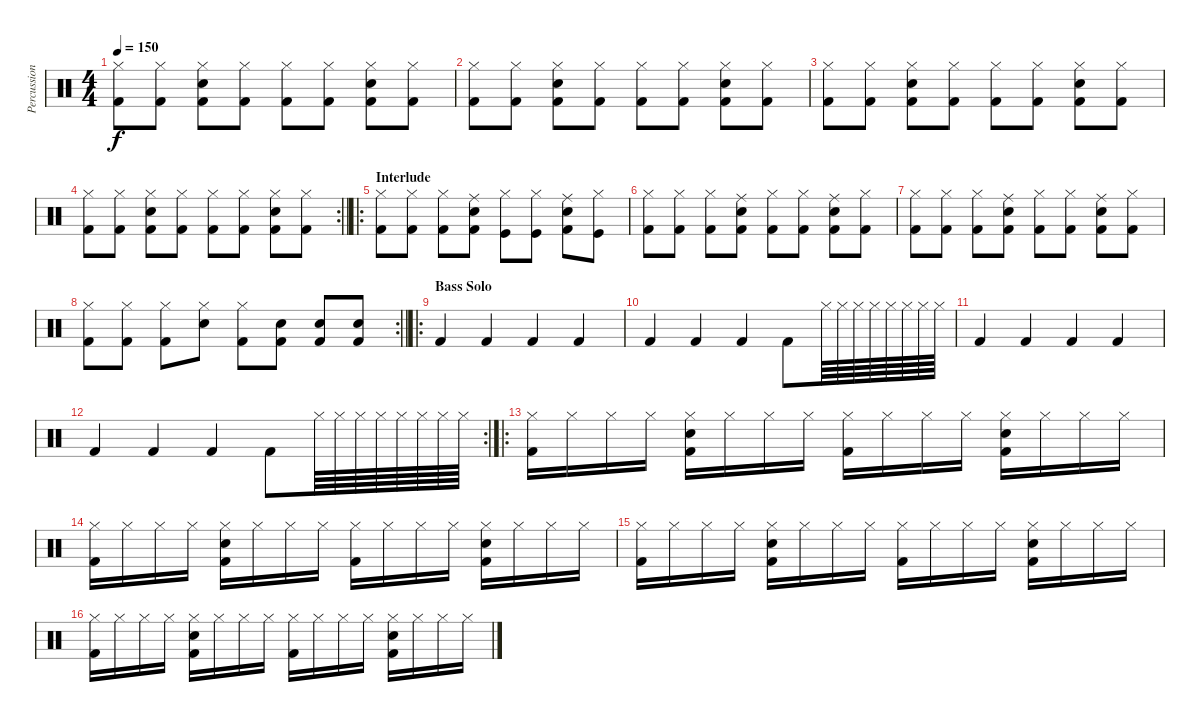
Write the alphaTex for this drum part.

\track ("Percussion" "Percussion") {instrument percussion}
\staff {score}
\articulation defaults
\ts (4 4)
\tempo 150
\clef neutral
\ks c
("Kick (hit) 2" "Hi-Hat (closed)").8{dy f} ("Kick (hit) 2" "Hi-Hat (closed)").8 ("Kick (hit) 2" "Hi-Hat (closed)" "Snare (hit) 2").8 ("Kick (hit) 2" "Hi-Hat (closed)").8 ("Kick (hit) 2" "Hi-Hat (closed)").8 ("Kick (hit) 2" "Hi-Hat (closed)").8 ("Kick (hit) 2" "Hi-Hat (closed)" "Snare (hit) 2").8 ("Kick (hit) 2" "Hi-Hat (closed)").8 |
("Kick (hit) 2" "Hi-Hat (closed)").8 ("Kick (hit) 2" "Hi-Hat (closed)").8 ("Kick (hit) 2" "Hi-Hat (closed)" "Snare (hit) 2").8 ("Kick (hit) 2" "Hi-Hat (closed)").8 ("Kick (hit) 2" "Hi-Hat (closed)").8 ("Kick (hit) 2" "Hi-Hat (closed)").8 ("Kick (hit) 2" "Hi-Hat (closed)" "Snare (hit) 2").8 ("Kick (hit) 2" "Hi-Hat (closed)").8 |
("Kick (hit) 2" "Hi-Hat (closed)").8 ("Kick (hit) 2" "Hi-Hat (closed)").8 ("Kick (hit) 2" "Hi-Hat (closed)" "Snare (hit) 2").8 ("Kick (hit) 2" "Hi-Hat (closed)").8 ("Kick (hit) 2" "Hi-Hat (closed)").8 ("Kick (hit) 2" "Hi-Hat (closed)").8 ("Kick (hit) 2" "Hi-Hat (closed)" "Snare (hit) 2").8 ("Kick (hit) 2" "Hi-Hat (closed)").8 |
\rc 2
\barLineRight lightlight
("Kick (hit) 2" "Hi-Hat (closed)").8 ("Kick (hit) 2" "Hi-Hat (closed)").8 ("Kick (hit) 2" "Hi-Hat (closed)" "Snare (hit) 2").8 ("Kick (hit) 2" "Hi-Hat (closed)").8 ("Kick (hit) 2" "Hi-Hat (closed)").8 ("Kick (hit) 2" "Hi-Hat (closed)").8 ("Kick (hit) 2" "Hi-Hat (closed)" "Snare (hit) 2").8 ("Kick (hit) 2" "Hi-Hat (closed)").8 |
\ro
\section ("" "Interlude")
("Kick (hit) 2" "Hi-Hat (closed)").8 ("Kick (hit) 2" "Hi-Hat (closed)").8 ("Kick (hit) 2" "Hi-Hat (closed)").8 ("Kick (hit) 2" "Ride (middle)" "Snare (hit) 2").8 ("Hi-Hat (closed)" "Kick (hit)").8 ("Hi-Hat (closed)" "Kick (hit)").8 ("Kick (hit) 2" "Ride (middle)" "Snare (hit) 2").8 ("Hi-Hat (closed)" "Kick (hit)").8 |
("Kick (hit) 2" "Hi-Hat (closed)").8 ("Kick (hit) 2" "Hi-Hat (closed)").8 ("Kick (hit) 2" "Hi-Hat (closed)").8 ("Kick (hit) 2" "Snare (hit) 2" "Ride (middle)").8 ("Kick (hit) 2" "Hi-Hat (closed)").8 ("Kick (hit) 2" "Hi-Hat (closed)").8 ("Kick (hit) 2" "Snare (hit) 2" "Ride (middle)").8 ("Kick (hit) 2" "Hi-Hat (closed)").8 |
("Kick (hit) 2" "Hi-Hat (closed)").8 ("Kick (hit) 2" "Hi-Hat (closed)").8 ("Kick (hit) 2" "Hi-Hat (closed)").8 ("Kick (hit) 2" "Snare (hit) 2" "Ride (middle)").8 ("Kick (hit) 2" "Hi-Hat (closed)").8 ("Kick (hit) 2" "Hi-Hat (closed)").8 ("Kick (hit) 2" "Snare (hit) 2" "Ride (middle)").8 ("Kick (hit) 2" "Hi-Hat (closed)").8 |
\rc 2
\barLineRight lightlight
("Kick (hit) 2" "Hi-Hat (closed)").8 ("Kick (hit) 2" "Hi-Hat (closed)").8 ("Kick (hit) 2" "Hi-Hat (closed)").8 ("Hi-Hat (closed)" "Snare (hit) 2").8 ("Kick (hit) 2" "Hi-Hat (closed)").8 ("Kick (hit) 2" "Snare (hit) 2").8 ("Kick (hit) 2" "Snare (hit) 2").8 ("Kick (hit) 2" "Snare (hit) 2").8 |
\ro
\section ("" "Bass Solo")
"Kick (hit) 2".4 "Kick (hit) 2".4 "Kick (hit) 2".4 "Kick (hit) 2".4 |
"Kick (hit) 2".4 "Kick (hit) 2".4 "Kick (hit) 2".4 "Kick (hit) 2".8 "Hi-Hat (closed)".64 "Hi-Hat (closed)".64 "Hi-Hat (closed)".64 "Hi-Hat (closed)".64 "Hi-Hat (closed)".64 "Hi-Hat (closed)".64 "Hi-Hat (closed)".64 "Hi-Hat (closed)".64 |
"Kick (hit) 2".4 "Kick (hit) 2".4 "Kick (hit) 2".4 "Kick (hit) 2".4 |
\rc 2 "Kick (hit) 2".4 "Kick (hit) 2".4 "Kick (hit) 2".4 "Kick (hit) 2".8 "Hi-Hat (closed)".64 "Hi-Hat (closed)".64 "Hi-Hat (closed)".64 "Hi-Hat (closed)".64 "Hi-Hat (closed)".64 "Hi-Hat (closed)".64 "Hi-Hat (closed)".64 "Hi-Hat (closed)".64
|
\ro
("Kick (hit) 2" "Hi-Hat (closed)").16 "Hi-Hat (closed)".16 "Hi-Hat (closed)".16 "Hi-Hat (closed)".16 ("Hi-Hat (closed)" "Kick (hit) 2" "Snare (hit) 2").16 "Hi-Hat (closed)".16 "Hi-Hat (closed)".16 "Hi-Hat (closed)".16 ("Hi-Hat (closed)" "Kick (hit) 2").16 "Hi-Hat (closed)".16 "Hi-Hat (closed)".16 "Hi-Hat (closed)".16 ("Hi-Hat (closed)" "Kick (hit) 2" "Snare (hit) 2").16 "Hi-Hat (closed)".16 "Hi-Hat (closed)".16 "Hi-Hat (closed)".16 |
("Kick (hit) 2" "Hi-Hat (closed)").16 "Hi-Hat (closed)".16 "Hi-Hat (closed)".16 "Hi-Hat (closed)".16 ("Hi-Hat (closed)" "Kick (hit) 2" "Snare (hit) 2").16 "Hi-Hat (closed)".16 "Hi-Hat (closed)".16 "Hi-Hat (closed)".16 ("Hi-Hat (closed)" "Kick (hit) 2").16 "Hi-Hat (closed)".16 "Hi-Hat (closed)".16 "Hi-Hat (closed)".16 ("Hi-Hat (closed)" "Kick (hit) 2" "Snare (hit) 2").16 "Hi-Hat (closed)".16 "Hi-Hat (closed)".16 "Hi-Hat (closed)".16 |
("Kick (hit) 2" "Hi-Hat (closed)").16 "Hi-Hat (closed)".16 "Hi-Hat (closed)".16 "Hi-Hat (closed)".16 ("Hi-Hat (closed)" "Kick (hit) 2" "Snare (hit) 2").16 "Hi-Hat (closed)".16 "Hi-Hat (closed)".16 "Hi-Hat (closed)".16 ("Hi-Hat (closed)" "Kick (hit) 2").16 "Hi-Hat (closed)".16 "Hi-Hat (closed)".16 "Hi-Hat (closed)".16 ("Hi-Hat (closed)" "Kick (hit) 2" "Snare (hit) 2").16 "Hi-Hat (closed)".16 "Hi-Hat (closed)".16 "Hi-Hat (closed)".16 |
("Kick (hit) 2" "Hi-Hat (closed)").16 "Hi-Hat (closed)".16 "Hi-Hat (closed)".16 "Hi-Hat (closed)".16 ("Hi-Hat (closed)" "Kick (hit) 2" "Snare (hit) 2").16 "Hi-Hat (closed)".16 "Hi-Hat (closed)".16 "Hi-Hat (closed)".16 ("Hi-Hat (closed)" "Kick (hit) 2").16 "Hi-Hat (closed)".16 "Hi-Hat (closed)".16 "Hi-Hat (closed)".16 ("Hi-Hat (closed)" "Kick (hit) 2" "Snare (hit) 2").16 "Hi-Hat (closed)".16 "Hi-Hat (closed)".16 "Hi-Hat (closed)".16
